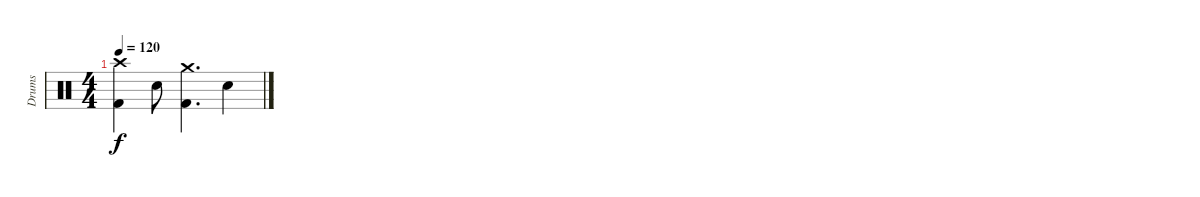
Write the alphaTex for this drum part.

\track ("Drums" "Drums") {instrument percussion}
\staff {score}
\articulation defaults
\ts (4 4)
\tempo 120
\clef neutral
\ks c
("Kick (hit) 2" "Crash high (hit)").4{dy f} "Snare (hit) 2".8 ("Kick (hit) 2" "Crash medium (hit)").4{d} "Snare (hit) 2".4
